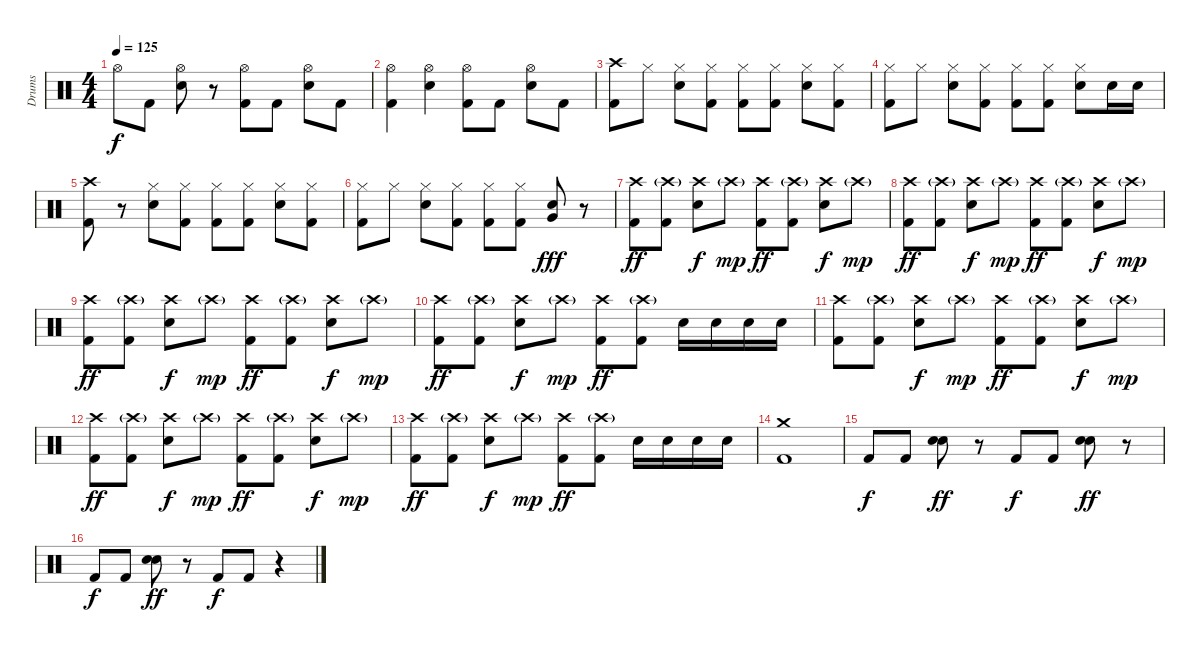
\track ("Drums" "Drums") {instrument percussion}
\staff {score}
\articulation defaults
\ts (4 4)
\tempo 125
\clef neutral
\ks c "Hi-Hat (open)".8{dy f} "Kick (hit) 2".8
("Hi-Hat (open)" "Electric Snare (hit)").8 r.8 ("Hi-Hat (open)" "Kick (hit) 2").8 "Kick (hit) 2".8 ("Hi-Hat (open)" "Electric Snare (hit)").8 "Kick (hit) 2".8 |
("Hi-Hat (open)" "Kick (hit) 2").4 ("Hi-Hat (open)" "Electric Snare (hit)").4 ("Hi-Hat (open)" "Kick (hit) 2").8 "Kick (hit) 2".8 ("Hi-Hat (open)" "Electric Snare (hit)").8 "Kick (hit) 2".8 |
("Crash high (hit)" "Kick (hit) 2").8 "Hi-Hat (closed)".8 ("Hi-Hat (closed)" "Electric Snare (hit)").8 ("Hi-Hat (closed)" "Kick (hit) 2").8 ("Hi-Hat (closed)" "Kick (hit) 2").8 ("Hi-Hat (closed)" "Kick (hit) 2").8 ("Hi-Hat (closed)" "Electric Snare (hit)").8 ("Hi-Hat (closed)" "Kick (hit) 2").8 |
("Hi-Hat (closed)" "Kick (hit) 2").8 "Hi-Hat (closed)".8 ("Hi-Hat (closed)" "Electric Snare (hit)").8 ("Hi-Hat (closed)" "Kick (hit) 2").8 ("Hi-Hat (closed)" "Kick (hit) 2").8 ("Hi-Hat (closed)" "Kick (hit) 2").8 ("Hi-Hat (closed)" "Electric Snare (hit)").8 "Electric Snare (hit)".16 "Electric Snare (hit)".16 |
("Crash high (hit)" "Kick (hit) 2").8 r.8 ("Hi-Hat (closed)" "Electric Snare (hit)").8 ("Hi-Hat (closed)" "Kick (hit) 2").8 ("Hi-Hat (closed)" "Kick (hit) 2").8 ("Hi-Hat (closed)" "Kick (hit) 2").8 ("Hi-Hat (closed)" "Electric Snare (hit)").8 ("Hi-Hat (closed)" "Kick (hit) 2").8 |
("Hi-Hat (closed)" "Kick (hit) 2").8 "Hi-Hat (closed)".8 ("Hi-Hat (closed)" "Electric Snare (hit)").8 ("Hi-Hat (closed)" "Kick (hit) 2").8 ("Hi-Hat (closed)" "Kick (hit) 2").8 ("Hi-Hat (closed)" "Kick (hit) 2").8 ("Very Low Tom (hit)" "Electric Snare (hit)").8{bd 60 dy fff} r.8 |
("Crash high (hit)" "Kick (hit) 2").8{dy ff} ("Crash high (hit)"{g} "Kick (hit) 2").8 ("Crash high (hit)" "Electric Snare (hit)").8{dy f} "Crash high (hit)"{g}.8{dy mp} ("Crash high (hit)" "Kick (hit) 2").8{dy ff} ("Crash high (hit)"{g} "Kick (hit) 2").8 ("Crash high (hit)" "Electric Snare (hit)").8{dy f} "Crash high (hit)"{g}.8{dy mp} |
("Crash high (hit)" "Kick (hit) 2").8{dy ff} ("Crash high (hit)"{g} "Kick (hit) 2").8 ("Crash high (hit)" "Electric Snare (hit)").8{dy f} "Crash high (hit)"{g}.8{dy mp} ("Crash high (hit)" "Kick (hit) 2").8{dy ff} ("Crash high (hit)"{g} "Kick (hit) 2").8 ("Crash high (hit)" "Electric Snare (hit)").8{dy f} "Crash high (hit)"{g}.8{dy mp} |
("Crash high (hit)" "Kick (hit) 2").8{dy ff} ("Crash high (hit)"{g} "Kick (hit) 2").8 ("Crash high (hit)" "Electric Snare (hit)").8{dy f} "Crash high (hit)"{g}.8{dy mp} ("Crash high (hit)" "Kick (hit) 2").8{dy ff} ("Crash high (hit)"{g} "Kick (hit) 2").8 ("Crash high (hit)" "Electric Snare (hit)").8{dy f} "Crash high (hit)"{g}.8{dy mp} |
("Crash high (hit)" "Kick (hit) 2").8{dy ff} ("Crash high (hit)"{g} "Kick (hit) 2").8 ("Crash high (hit)" "Electric Snare (hit)").8{dy f} "Crash high (hit)"{g}.8{dy mp} ("Crash high (hit)" "Kick (hit) 2").8{dy ff} ("Crash high (hit)"{g} "Kick (hit) 2").8 "Electric Snare (hit)".16 "Electric Snare (hit)".16 "Electric Snare (hit)".16 "Electric Snare (hit)".16 |
("Crash high (hit)" "Kick (hit) 2").8 ("Crash high (hit)"{g} "Kick (hit) 2").8 ("Crash high (hit)" "Electric Snare (hit)").8{dy f} "Crash high (hit)"{g}.8{dy mp} ("Crash high (hit)" "Kick (hit) 2").8{dy ff} ("Crash high (hit)"{g} "Kick (hit) 2").8 ("Crash high (hit)" "Electric Snare (hit)").8{dy f} "Crash high (hit)"{g}.8{dy mp} |
("Crash high (hit)" "Kick (hit) 2").8{dy ff} ("Crash high (hit)"{g} "Kick (hit) 2").8 ("Crash high (hit)" "Electric Snare (hit)").8{dy f} "Crash high (hit)"{g}.8{dy mp} ("Crash high (hit)" "Kick (hit) 2").8{dy ff} ("Crash high (hit)"{g} "Kick (hit) 2").8 ("Crash high (hit)" "Electric Snare (hit)").8{dy f} "Crash high (hit)"{g}.8{dy mp} |
("Crash high (hit)" "Kick (hit) 2").8{dy ff} ("Crash high (hit)"{g} "Kick (hit) 2").8 ("Crash high (hit)" "Electric Snare (hit)").8{dy f} "Crash high (hit)"{g}.8{dy mp} ("Crash high (hit)" "Kick (hit) 2").8{dy ff} ("Crash high (hit)"{g} "Kick (hit) 2").8 "Electric Snare (hit)".16 "Electric Snare (hit)".16 "Electric Snare (hit)".16 "Electric Snare (hit)".16 |
("Crash medium (hit)" "Kick (hit) 2").1 |
"Kick (hit) 2".8{dy f} "Kick (hit) 2".8 ("Electric Snare (hit)" "Electric Snare (hit)").8{bd 60 dy ff} r.8 "Kick (hit) 2".8{dy f} "Kick (hit) 2".8 ("Electric Snare (hit)" "Electric Snare (hit)").8{bd 60 dy ff} r.8 |
"Kick (hit) 2".8{dy f} "Kick (hit) 2".8 ("Electric Snare (hit)" "Electric Snare (hit)").8{bd 60 dy ff} r.8 "Kick (hit) 2".8{dy f} "Kick (hit) 2".8 r.4
